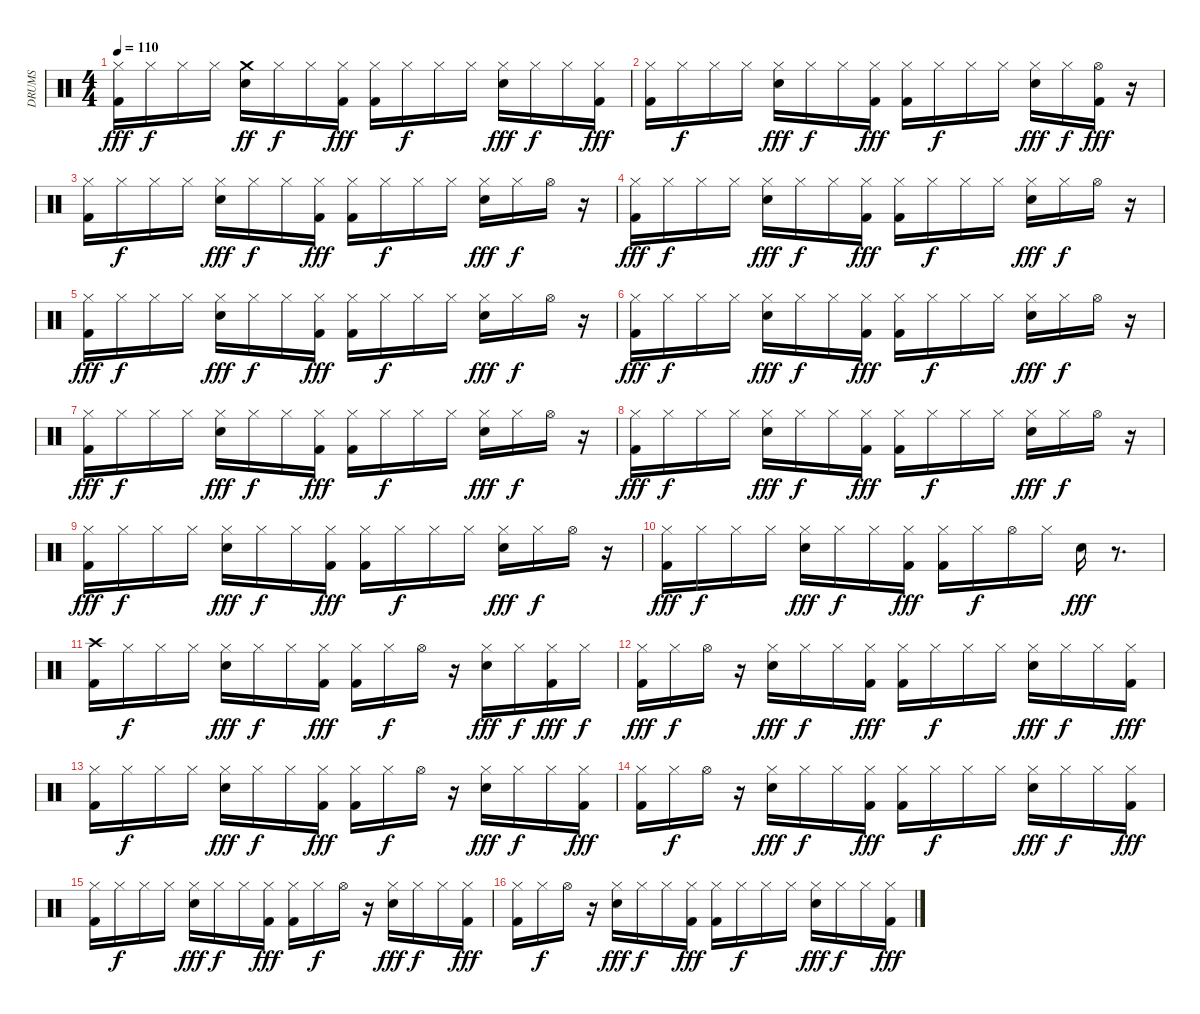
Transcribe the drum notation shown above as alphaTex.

\track ("DRUMS" "DRUMS") {solo instrument percussion}
\staff {score}
\articulation defaults
\ts (4 4)
\tempo 110
\clef neutral
\ks c
("Hi-Hat (closed)" "Kick (hit) 2").16{dy fff} "Hi-Hat (closed)".16{dy f} "Hi-Hat (closed)".16 "Hi-Hat (closed)".16 ("Electric Snare (hit)" "Crash medium (hit)").16{dy ff} "Hi-Hat (closed)".16{dy f} "Hi-Hat (closed)".16 ("Hi-Hat (closed)" "Kick (hit) 2").16{dy fff} ("Kick (hit) 2" "Hi-Hat (closed)").16 "Hi-Hat (closed)".16{dy f} "Hi-Hat (closed)".16 "Hi-Hat (closed)".16 ("Electric Snare (hit)" "Hi-Hat (closed)").16{dy fff} "Hi-Hat (closed)".16{dy f} "Hi-Hat (closed)".16 ("Hi-Hat (closed)" "Kick (hit) 2").16{dy fff} |
("Kick (hit) 2" "Hi-Hat (closed)").16 "Hi-Hat (closed)".16{dy f} "Hi-Hat (closed)".16 "Hi-Hat (closed)".16 ("Electric Snare (hit)" "Hi-Hat (closed)").16{dy fff} "Hi-Hat (closed)".16{dy f} "Hi-Hat (closed)".16 ("Hi-Hat (closed)" "Kick (hit) 2").16{dy fff} ("Kick (hit) 2" "Hi-Hat (closed)").16 "Hi-Hat (closed)".16{dy f} "Hi-Hat (closed)".16 "Hi-Hat (closed)".16 ("Hi-Hat (closed)" "Electric Snare (hit)").16{dy fff} "Hi-Hat (closed)".16{dy f} ("Kick (hit) 2" "Hi-Hat (open)").16{dy fff} r.16 |
("Hi-Hat (closed)" "Kick (hit) 2").16 "Hi-Hat (closed)".16{dy f} "Hi-Hat (closed)".16 "Hi-Hat (closed)".16 ("Electric Snare (hit)" "Hi-Hat (closed)").16{dy fff} "Hi-Hat (closed)".16{dy f} "Hi-Hat (closed)".16 ("Hi-Hat (closed)" "Kick (hit) 2").16{dy fff} ("Kick (hit) 2" "Hi-Hat (closed)").16 "Hi-Hat (closed)".16{dy f} "Hi-Hat (closed)".16 "Hi-Hat (closed)".16 ("Electric Snare (hit)" "Hi-Hat (closed)").16{dy fff} "Hi-Hat (closed)".16{dy f} "Hi-Hat (open)".16 r.16 |
("Kick (hit) 2" "Hi-Hat (closed)").16{dy fff} "Hi-Hat (closed)".16{dy f} "Hi-Hat (closed)".16 "Hi-Hat (closed)".16 ("Electric Snare (hit)" "Hi-Hat (closed)").16{dy fff} "Hi-Hat (closed)".16{dy f} "Hi-Hat (closed)".16 ("Hi-Hat (closed)" "Kick (hit) 2").16{dy fff} ("Kick (hit) 2" "Hi-Hat (closed)").16 "Hi-Hat (closed)".16{dy f} "Hi-Hat (closed)".16 "Hi-Hat (closed)".16 ("Electric Snare (hit)" "Hi-Hat (closed)").16{dy fff} "Hi-Hat (closed)".16{dy f} "Hi-Hat (open)".16 r.16 |
("Hi-Hat (closed)" "Kick (hit) 2").16{dy fff} "Hi-Hat (closed)".16{dy f} "Hi-Hat (closed)".16 "Hi-Hat (closed)".16 ("Electric Snare (hit)" "Hi-Hat (closed)").16{dy fff} "Hi-Hat (closed)".16{dy f} "Hi-Hat (closed)".16 ("Hi-Hat (closed)" "Kick (hit) 2").16{dy fff} ("Kick (hit) 2" "Hi-Hat (closed)").16 "Hi-Hat (closed)".16{dy f} "Hi-Hat (closed)".16 "Hi-Hat (closed)".16 ("Electric Snare (hit)" "Hi-Hat (closed)").16{dy fff} "Hi-Hat (closed)".16{dy f} "Hi-Hat (open)".16 r.16 |
("Kick (hit) 2" "Hi-Hat (closed)").16{dy fff} "Hi-Hat (closed)".16{dy f} "Hi-Hat (closed)".16 "Hi-Hat (closed)".16 ("Electric Snare (hit)" "Hi-Hat (closed)").16{dy fff} "Hi-Hat (closed)".16{dy f} "Hi-Hat (closed)".16 ("Hi-Hat (closed)" "Kick (hit) 2").16{dy fff} ("Kick (hit) 2" "Hi-Hat (closed)").16 "Hi-Hat (closed)".16{dy f} "Hi-Hat (closed)".16 "Hi-Hat (closed)".16 ("Electric Snare (hit)" "Hi-Hat (closed)").16{dy fff} "Hi-Hat (closed)".16{dy f} "Hi-Hat (open)".16 r.16 |
("Hi-Hat (closed)" "Kick (hit) 2").16{dy fff} "Hi-Hat (closed)".16{dy f} "Hi-Hat (closed)".16 "Hi-Hat (closed)".16 ("Electric Snare (hit)" "Hi-Hat (closed)").16{dy fff} "Hi-Hat (closed)".16{dy f} "Hi-Hat (closed)".16 ("Hi-Hat (closed)" "Kick (hit) 2").16{dy fff} ("Kick (hit) 2" "Hi-Hat (closed)").16 "Hi-Hat (closed)".16{dy f} "Hi-Hat (closed)".16 "Hi-Hat (closed)".16 ("Electric Snare (hit)" "Hi-Hat (closed)").16{dy fff} "Hi-Hat (closed)".16{dy f} "Hi-Hat (open)".16 r.16 |
("Kick (hit) 2" "Hi-Hat (closed)").16{dy fff} "Hi-Hat (closed)".16{dy f} "Hi-Hat (closed)".16 "Hi-Hat (closed)".16 ("Electric Snare (hit)" "Hi-Hat (closed)").16{dy fff} "Hi-Hat (closed)".16{dy f} "Hi-Hat (closed)".16 ("Hi-Hat (closed)" "Kick (hit) 2").16{dy fff} ("Kick (hit) 2" "Hi-Hat (closed)").16 "Hi-Hat (closed)".16{dy f} "Hi-Hat (closed)".16 "Hi-Hat (closed)".16 ("Electric Snare (hit)" "Hi-Hat (closed)").16{dy fff} "Hi-Hat (closed)".16{dy f} "Hi-Hat (open)".16 r.16 |
("Hi-Hat (closed)" "Kick (hit) 2").16{dy fff} "Hi-Hat (closed)".16{dy f} "Hi-Hat (closed)".16 "Hi-Hat (closed)".16 ("Electric Snare (hit)" "Hi-Hat (closed)").16{dy fff} "Hi-Hat (closed)".16{dy f} "Hi-Hat (closed)".16 ("Hi-Hat (closed)" "Kick (hit) 2").16{dy fff} ("Kick (hit) 2" "Hi-Hat (closed)").16 "Hi-Hat (closed)".16{dy f} "Hi-Hat (closed)".16 "Hi-Hat (closed)".16 ("Electric Snare (hit)" "Hi-Hat (closed)").16{dy fff} "Hi-Hat (closed)".16{dy f} "Hi-Hat (open)".16 r.16 |
("Kick (hit) 2" "Hi-Hat (closed)").16{dy fff} "Hi-Hat (closed)".16{dy f} "Hi-Hat (closed)".16 "Hi-Hat (closed)".16 ("Electric Snare (hit)" "Hi-Hat (closed)").16{dy fff} "Hi-Hat (closed)".16{dy f} "Hi-Hat (closed)".16 ("Hi-Hat (closed)" "Kick (hit) 2").16{dy fff} ("Kick (hit) 2" "Hi-Hat (closed)").16 "Hi-Hat (closed)".16{dy f} "Hi-Hat (open)".16 "Hi-Hat (closed)".16 "Electric Snare (hit)".16{dy fff} r.8{d} |
("Crash high (hit)" "Kick (hit) 2").16 "Hi-Hat (closed)".16{dy f} "Hi-Hat (closed)".16 "Hi-Hat (closed)".16 ("Electric Snare (hit)" "Hi-Hat (closed)").16{dy fff} "Hi-Hat (closed)".16{dy f} "Hi-Hat (closed)".16 ("Hi-Hat (closed)" "Kick (hit) 2").16{dy fff} ("Kick (hit) 2" "Hi-Hat (closed)").16 "Hi-Hat (closed)".16{dy f} "Hi-Hat (open)".16 r.16 ("Electric Snare (hit)" "Hi-Hat (closed)").16{dy fff} "Hi-Hat (closed)".16{dy f} ("Kick (hit) 2" "Hi-Hat (closed)").16{dy fff} "Hi-Hat (closed)".16{dy f} |
("Kick (hit) 2" "Hi-Hat (closed)").16{dy fff} "Hi-Hat (closed)".16{dy f} "Hi-Hat (open)".16 r.16 ("Electric Snare (hit)" "Hi-Hat (closed)").16{dy fff} "Hi-Hat (closed)".16{dy f} "Hi-Hat (closed)".16 ("Hi-Hat (closed)" "Kick (hit) 2").16{dy fff} ("Kick (hit) 2" "Hi-Hat (closed)").16 "Hi-Hat (closed)".16{dy f} "Hi-Hat (closed)".16 "Hi-Hat (closed)".16 ("Electric Snare (hit)" "Hi-Hat (closed)").16{dy fff} "Hi-Hat (closed)".16{dy f} "Hi-Hat (closed)".16 ("Hi-Hat (closed)" "Kick (hit) 2").16{dy fff} |
("Hi-Hat (closed)" "Kick (hit) 2").16 "Hi-Hat (closed)".16{dy f} "Hi-Hat (closed)".16 "Hi-Hat (closed)".16 ("Electric Snare (hit)" "Hi-Hat (closed)").16{dy fff} "Hi-Hat (closed)".16{dy f} "Hi-Hat (closed)".16 ("Hi-Hat (closed)" "Kick (hit) 2").16{dy fff} ("Kick (hit) 2" "Hi-Hat (closed)").16 "Hi-Hat (closed)".16{dy f} "Hi-Hat (open)".16 r.16 ("Electric Snare (hit)" "Hi-Hat (closed)").16{dy fff} "Hi-Hat (closed)".16{dy f} "Hi-Hat (closed)".16 ("Hi-Hat (closed)" "Kick (hit) 2").16{dy fff} |
("Kick (hit) 2" "Hi-Hat (closed)").16 "Hi-Hat (closed)".16{dy f} "Hi-Hat (open)".16 r.16 ("Electric Snare (hit)" "Hi-Hat (closed)").16{dy fff} "Hi-Hat (closed)".16{dy f} "Hi-Hat (closed)".16 ("Hi-Hat (closed)" "Kick (hit) 2").16{dy fff} ("Kick (hit) 2" "Hi-Hat (closed)").16 "Hi-Hat (closed)".16{dy f} "Hi-Hat (closed)".16 "Hi-Hat (closed)".16 ("Electric Snare (hit)" "Hi-Hat (closed)").16{dy fff} "Hi-Hat (closed)".16{dy f} "Hi-Hat (closed)".16 ("Hi-Hat (closed)" "Kick (hit) 2").16{dy fff} |
("Hi-Hat (closed)" "Kick (hit) 2").16 "Hi-Hat (closed)".16{dy f} "Hi-Hat (closed)".16 "Hi-Hat (closed)".16 ("Electric Snare (hit)" "Hi-Hat (closed)").16{dy fff} "Hi-Hat (closed)".16{dy f} "Hi-Hat (closed)".16 ("Hi-Hat (closed)" "Kick (hit) 2").16{dy fff} ("Kick (hit) 2" "Hi-Hat (closed)").16 "Hi-Hat (closed)".16{dy f} "Hi-Hat (open)".16 r.16 ("Electric Snare (hit)" "Hi-Hat (closed)").16{dy fff} "Hi-Hat (closed)".16{dy f} "Hi-Hat (closed)".16 ("Hi-Hat (closed)" "Kick (hit) 2").16{dy fff} |
("Kick (hit) 2" "Hi-Hat (closed)").16 "Hi-Hat (closed)".16{dy f} "Hi-Hat (open)".16 r.16 ("Electric Snare (hit)" "Hi-Hat (closed)").16{dy fff} "Hi-Hat (closed)".16{dy f} "Hi-Hat (closed)".16 ("Hi-Hat (closed)" "Kick (hit) 2").16{dy fff} ("Kick (hit) 2" "Hi-Hat (closed)").16 "Hi-Hat (closed)".16{dy f} "Hi-Hat (closed)".16 "Hi-Hat (closed)".16 ("Electric Snare (hit)" "Hi-Hat (closed)").16{dy fff} "Hi-Hat (closed)".16{dy f} "Hi-Hat (closed)".16 ("Hi-Hat (closed)" "Kick (hit) 2").16{dy fff}
